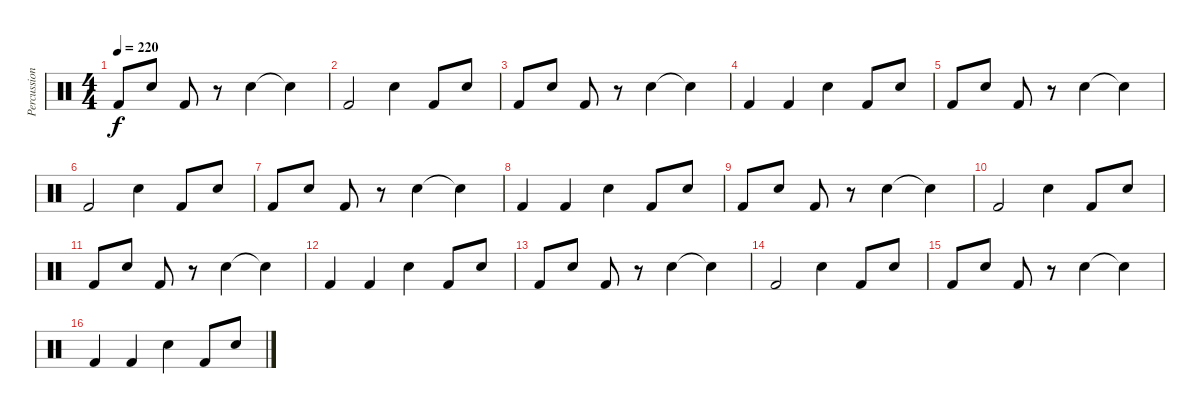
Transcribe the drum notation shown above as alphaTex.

\track ("Percussions" "Percussion") {instrument percussion}
\staff {score}
\articulation defaults
\ts (4 4)
\tempo 220
\clef neutral
\ks c "Kick (hit) 2".8{dy f} "Electric Snare (hit)".8 "Kick (hit) 2".8
r.8 "Electric Snare (hit)".4 "Electric Snare (hit)"{t}.4 |
"Kick (hit) 2".2 "Electric Snare (hit)".4 "Kick (hit) 2".8 "Electric Snare (hit)".8 |
"Kick (hit) 2".8 "Electric Snare (hit)".8 "Kick (hit) 2".8 r.8 "Electric Snare (hit)".4 "Snare (hit)"{t}.4 |
"Kick (hit) 2".4 "Kick (hit) 2".4 "Electric Snare (hit)".4 "Kick (hit) 2".8 "Electric Snare (hit)".8 |
"Kick (hit) 2".8 "Electric Snare (hit)".8 "Kick (hit) 2".8 r.8 "Electric Snare (hit)".4 "Electric Snare (hit)"{t}.4 |
"Kick (hit) 2".2 "Electric Snare (hit)".4 "Kick (hit) 2".8 "Electric Snare (hit)".8 |
"Kick (hit) 2".8 "Electric Snare (hit)".8 "Kick (hit) 2".8 r.8 "Electric Snare (hit)".4 "Snare (hit)"{t}.4 |
"Kick (hit) 2".4 "Kick (hit) 2".4 "Electric Snare (hit)".4 "Kick (hit) 2".8 "Electric Snare (hit)".8 |
"Kick (hit) 2".8 "Electric Snare (hit)".8 "Kick (hit) 2".8 r.8 "Electric Snare (hit)".4 "Electric Snare (hit)"{t}.4 |
"Kick (hit) 2".2 "Electric Snare (hit)".4 "Kick (hit) 2".8 "Electric Snare (hit)".8 |
"Kick (hit) 2".8 "Electric Snare (hit)".8 "Kick (hit) 2".8 r.8 "Electric Snare (hit)".4 "Snare (hit)"{t}.4 |
"Kick (hit) 2".4 "Kick (hit) 2".4 "Electric Snare (hit)".4 "Kick (hit) 2".8 "Electric Snare (hit)".8 |
"Kick (hit) 2".8 "Electric Snare (hit)".8 "Kick (hit) 2".8 r.8 "Electric Snare (hit)".4 "Electric Snare (hit)"{t}.4 |
"Kick (hit) 2".2 "Electric Snare (hit)".4 "Kick (hit) 2".8 "Electric Snare (hit)".8 |
"Kick (hit) 2".8 "Electric Snare (hit)".8 "Kick (hit) 2".8 r.8 "Electric Snare (hit)".4 "Snare (hit)"{t}.4 |
"Kick (hit) 2".4 "Kick (hit) 2".4 "Electric Snare (hit)".4 "Kick (hit) 2".8 "Electric Snare (hit)".8
